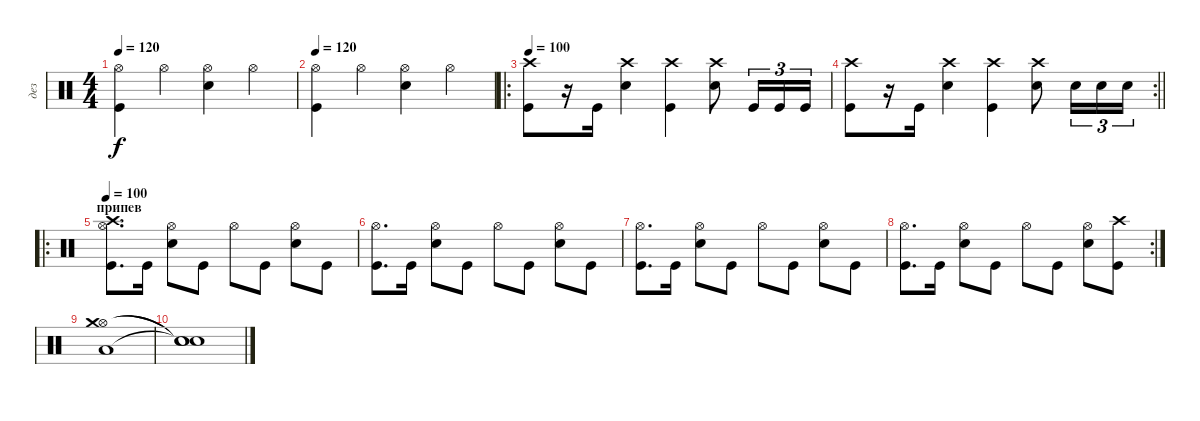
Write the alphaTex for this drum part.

\track ("дез" "дез") {instrument percussion}
\staff {score}
\articulation defaults
\ts (4 4)
\tempo 120
\clef neutral
\ks c
("Hi-Hat (open)" "Kick (hit)").4{dy f} "Hi-Hat (open)".4 ("Hi-Hat (open)" "Electric Snare (hit)").4 "Hi-Hat (open)".4 |
\tempo 120
("Hi-Hat (open)" "Kick (hit)").4 "Hi-Hat (open)".4 ("Hi-Hat (open)" "Electric Snare (hit)").4 "Hi-Hat (open)".4 |
\ro
\tempo 100
("Crash high (hit)" "Kick (hit)").8 r.16 "Kick (hit)".16 ("Crash high (hit)" "Electric Snare (hit)").4 ("Crash high (hit)" "Kick (hit)").4 ("Crash high (hit)" "Electric Snare (hit)").8 "Kick (hit)".16{tu (3 2)} "Kick (hit)".16{tu (3 2)} "Kick (hit)".16{tu (3 2)} |
\rc 2
\barLineRight lightlight
("Crash high (hit)" "Kick (hit)").8 r.16 "Kick (hit)".16 ("Crash high (hit)" "Electric Snare (hit)").4 ("Crash high (hit)" "Kick (hit)").4 ("Crash high (hit)" "Electric Snare (hit)").8 "Electric Snare (hit)".16{tu (3 2)} "Electric Snare (hit)".16{tu (3 2)} "Electric Snare (hit)".16{tu (3 2)} |
\ro
\section ("" "припев")
\tempo 100
("Crash high (hit)" "Hi-Hat (open)" "Kick (hit)").8{d} "Kick (hit)".16 ("Hi-Hat (open)" "Snare (hit) 2").8 "Kick (hit)".8 "Hi-Hat (open)".8 "Kick (hit)".8 ("Hi-Hat (open)" "Snare (hit) 2").8 "Kick (hit)".8 |
("Hi-Hat (open)" "Kick (hit)").8{d} "Kick (hit)".16 ("Hi-Hat (open)" "Snare (hit) 2").8 "Kick (hit)".8 "Hi-Hat (open)".8 "Kick (hit)".8 ("Hi-Hat (open)" "Snare (hit) 2").8 "Kick (hit)".8 |
("Hi-Hat (open)" "Kick (hit)").8{d} "Kick (hit)".16 ("Hi-Hat (open)" "Snare (hit) 2").8 "Kick (hit)".8 "Hi-Hat (open)".8 "Kick (hit)".8 ("Hi-Hat (open)" "Snare (hit) 2").8 "Kick (hit)".8 |
\rc 2
("Hi-Hat (open)" "Kick (hit)").8{d} "Kick (hit)".16 ("Hi-Hat (open)" "Snare (hit) 2").8 "Kick (hit)".8 "Hi-Hat (open)".8 "Kick (hit)".8 ("Hi-Hat (open)" "Snare (hit) 2").8 ("Crash high (hit)" "Kick (hit)").8 |
("Hi-Hat (open)" "Low Tom (hit)" "Crash medium (hit)").1 |
("Snare (hit)"{t} "Snare (hit)"{t} "Snare (hit)"{t}).1
